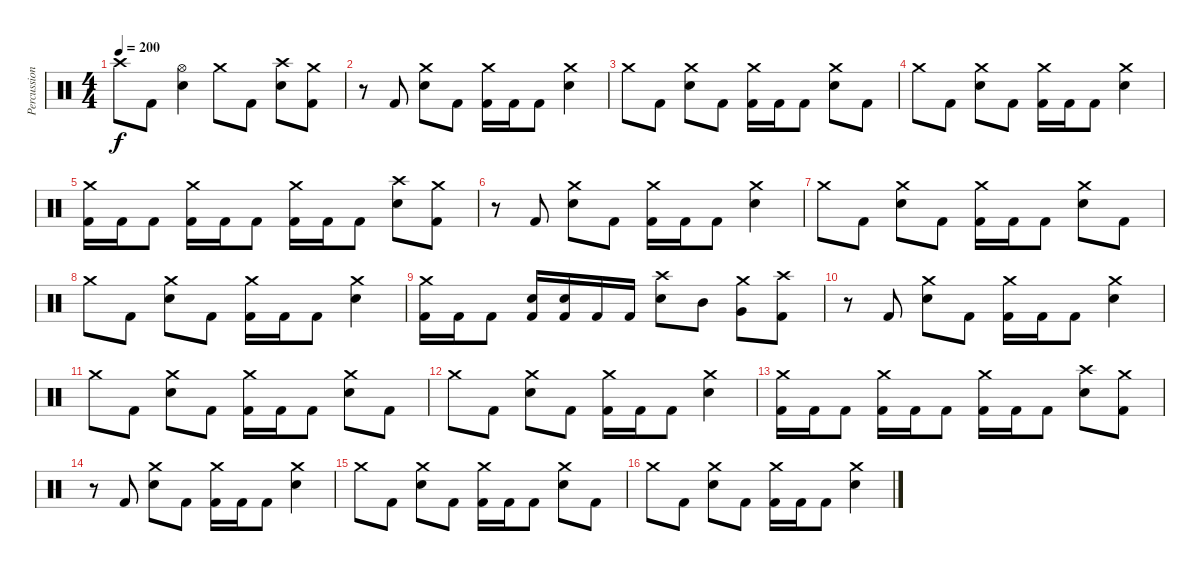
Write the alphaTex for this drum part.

\track ("Percussion" "Percussion") {instrument percussion}
\staff {score}
\articulation defaults
\ts (4 4)
\tempo 200
\clef neutral
\ks c "Crash high (hit)".8{dy f} "Kick (hit) 2".8
("Hi-Hat (open)" "Snare (hit) 2").4 "Crash medium (hit)".8 "Kick (hit) 2".8 ("Crash high (hit)" "Snare (hit) 2").8 ("Crash medium (hit)" "Kick (hit) 2").8 |
r.8 "Kick (hit) 2".8 ("Crash medium (hit)" "Snare (hit) 2").8 "Kick (hit) 2".8 ("Crash medium (hit)" "Kick (hit) 2").16 "Kick (hit) 2".16 "Kick (hit) 2".8 ("Crash medium (hit)" "Snare (hit) 2").4 |
"Crash medium (hit)".8 "Kick (hit) 2".8 ("Crash medium (hit)" "Snare (hit) 2").8 "Kick (hit) 2".8 ("Crash medium (hit)" "Kick (hit) 2").16 "Kick (hit) 2".16 "Kick (hit) 2".8 ("Crash medium (hit)" "Snare (hit) 2").8 "Kick (hit) 2".8 |
"Crash medium (hit)".8 "Kick (hit) 2".8 ("Crash medium (hit)" "Snare (hit) 2").8 "Kick (hit) 2".8 ("Crash medium (hit)" "Kick (hit) 2").16 "Kick (hit) 2".16 "Kick (hit) 2".8 ("Crash medium (hit)" "Snare (hit) 2").4 |
("Crash medium (hit)" "Kick (hit) 2").16 "Kick (hit) 2".16 "Kick (hit) 2".8 ("Crash medium (hit)" "Kick (hit) 2").16 "Kick (hit) 2".16 "Kick (hit) 2".8 ("Crash medium (hit)" "Kick (hit) 2").16 "Kick (hit) 2".16 "Kick (hit) 2".8 ("Crash high (hit)" "Snare (hit) 2").8 ("Crash medium (hit)" "Kick (hit) 2").8 |
r.8 "Kick (hit) 2".8 ("Crash medium (hit)" "Snare (hit) 2").8 "Kick (hit) 2".8 ("Crash medium (hit)" "Kick (hit) 2").16 "Kick (hit) 2".16 "Kick (hit) 2".8 ("Crash medium (hit)" "Snare (hit) 2").4 |
"Crash medium (hit)".8 "Kick (hit) 2".8 ("Crash medium (hit)" "Snare (hit) 2").8 "Kick (hit) 2".8 ("Crash medium (hit)" "Kick (hit) 2").16 "Kick (hit) 2".16 "Kick (hit) 2".8 ("Crash medium (hit)" "Snare (hit) 2").8 "Kick (hit) 2".8 |
"Crash medium (hit)".8 "Kick (hit) 2".8 ("Crash medium (hit)" "Snare (hit) 2").8 "Kick (hit) 2".8 ("Crash medium (hit)" "Kick (hit) 2").16 "Kick (hit) 2".16 "Kick (hit) 2".8 ("Crash medium (hit)" "Snare (hit) 2").4 |
("Crash medium (hit)" "Kick (hit) 2").16 "Kick (hit) 2".16 "Kick (hit) 2".8 ("Snare (hit) 2" "Kick (hit) 2").16 ("Snare (hit) 2" "Kick (hit) 2").16 "Kick (hit) 2".16 "Kick (hit) 2".16 ("Crash high (hit)" "Snare (hit) 2").8 "Mid Tom (hit)".8 ("Crash medium (hit)" "Very Low Tom (hit)").8 ("Crash high (hit)" "Kick (hit) 2").8 |
r.8 "Kick (hit) 2".8 ("Crash medium (hit)" "Snare (hit) 2").8 "Kick (hit) 2".8 ("Crash medium (hit)" "Kick (hit) 2").16 "Kick (hit) 2".16 "Kick (hit) 2".8 ("Crash medium (hit)" "Snare (hit) 2").4 |
"Crash medium (hit)".8 "Kick (hit) 2".8 ("Crash medium (hit)" "Snare (hit) 2").8 "Kick (hit) 2".8 ("Crash medium (hit)" "Kick (hit) 2").16 "Kick (hit) 2".16 "Kick (hit) 2".8 ("Crash medium (hit)" "Snare (hit) 2").8 "Kick (hit) 2".8 |
"Crash medium (hit)".8 "Kick (hit) 2".8 ("Crash medium (hit)" "Snare (hit) 2").8 "Kick (hit) 2".8 ("Crash medium (hit)" "Kick (hit) 2").16 "Kick (hit) 2".16 "Kick (hit) 2".8 ("Crash medium (hit)" "Snare (hit) 2").4 |
("Crash medium (hit)" "Kick (hit) 2").16 "Kick (hit) 2".16 "Kick (hit) 2".8 ("Crash medium (hit)" "Kick (hit) 2").16 "Kick (hit) 2".16 "Kick (hit) 2".8 ("Crash medium (hit)" "Kick (hit) 2").16 "Kick (hit) 2".16 "Kick (hit) 2".8 ("Crash high (hit)" "Snare (hit) 2").8 ("Crash medium (hit)" "Kick (hit) 2").8 |
r.8 "Kick (hit) 2".8 ("Crash medium (hit)" "Snare (hit) 2").8 "Kick (hit) 2".8 ("Crash medium (hit)" "Kick (hit) 2").16 "Kick (hit) 2".16 "Kick (hit) 2".8 ("Crash medium (hit)" "Snare (hit) 2").4 |
"Crash medium (hit)".8 "Kick (hit) 2".8 ("Crash medium (hit)" "Snare (hit) 2").8 "Kick (hit) 2".8 ("Crash medium (hit)" "Kick (hit) 2").16 "Kick (hit) 2".16 "Kick (hit) 2".8 ("Crash medium (hit)" "Snare (hit) 2").8 "Kick (hit) 2".8 |
"Crash medium (hit)".8 "Kick (hit) 2".8 ("Crash medium (hit)" "Snare (hit) 2").8 "Kick (hit) 2".8 ("Crash medium (hit)" "Kick (hit) 2").16 "Kick (hit) 2".16 "Kick (hit) 2".8 ("Crash medium (hit)" "Snare (hit) 2").4
